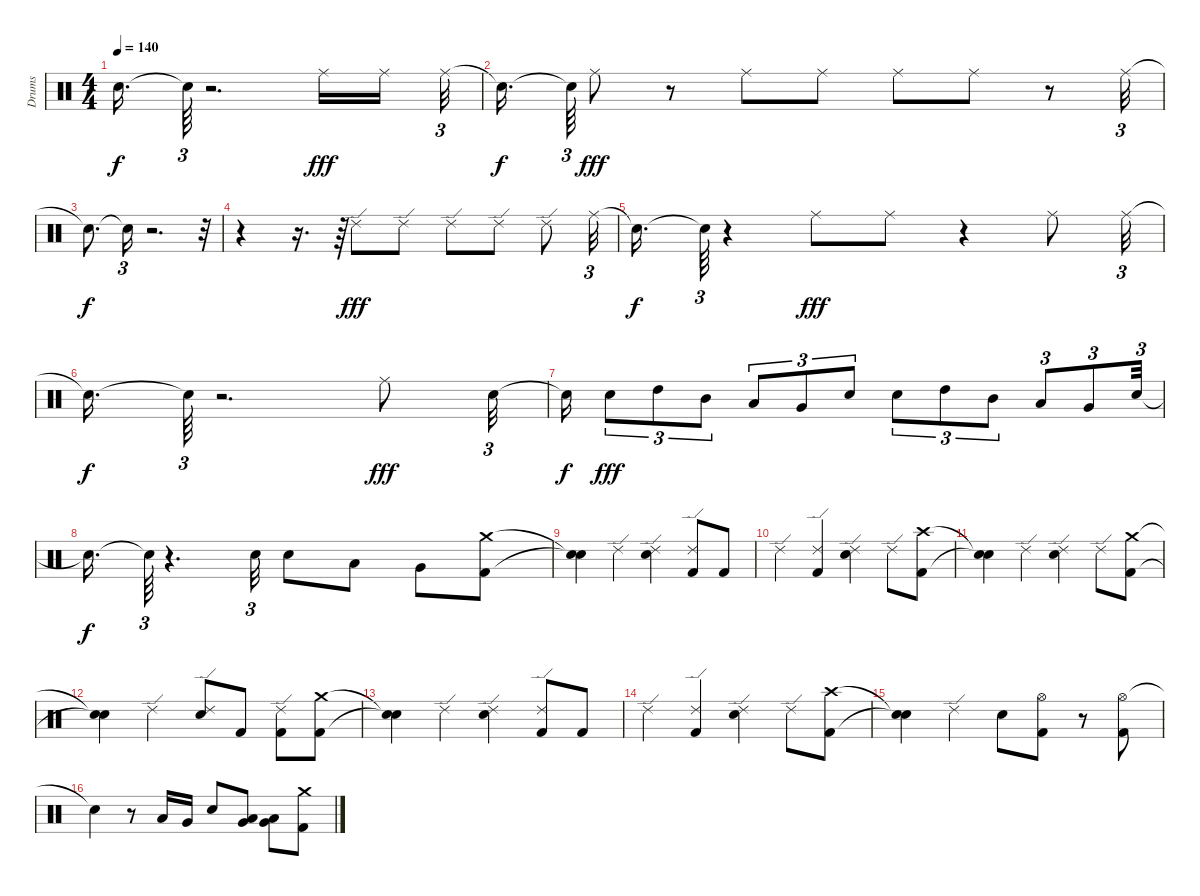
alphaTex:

\track ("Drums" "Drums") {instrument percussion}
\staff {score}
\articulation defaults
\ts (4 4)
\tempo 140
\clef neutral
\ks c "Snare (hit)"{t}.16{d dy f} "Snare (hit)"{t}.64{tu (3 2)}
r.2{d} "Ride (middle)".16{dy fff} "Ride (middle)".16 "Ride (middle)".32{tu (3 2)} |
"Snare (hit)"{t}.16{d dy f} "Snare (hit)"{t}.64{tu (3 2)} "Ride (middle)".8{dy fff} r.8 "Ride (middle)".8 "Ride (middle)".8 "Ride (middle)".8 "Ride (middle)".8 r.8 "Ride (middle)".32{tu (3 2)} |
"Snare (hit)"{t}.8{d dy f} "Snare (hit)"{t}.16{tu (3 2)} r.2{d} r.32{tu (3 2)} |
r.4 r.16{d} r.64{tu (3 2)} "Ride (edge) 2".8{dy fff} "Ride (edge) 2".8 "Ride (edge) 2".8 "Ride (edge) 2".8 "Ride (edge) 2".8 "Ride (middle)".32{tu (3 2)} |
"Snare (hit)"{t}.16{d dy f} "Snare (hit)"{t}.64{tu (3 2)} r.4 "Ride (middle)".8{dy fff} "Ride (middle)".8 r.4 "Ride (middle)".8 "Ride (middle)".32{tu (3 2)} |
"Snare (hit)"{t}.16{d dy f} "Snare (hit)"{t}.64{tu (3 2)} r.2{d} "Ride (middle)".8{dy fff} "Snare (hit) 2".32{tu (3 2)} |
"Snare (hit)"{t}.16{dy f} "Snare (hit) 2".8{tu (3 2) dy fff} "High Tom (hit)".8{tu (3 2)} "Mid Tom (hit)".8{tu (3 2)} "Low Tom (hit)".8{tu (3 2)} "Very Low Tom (hit)".8{tu (3 2)} "Snare (hit) 2".8{tu (3 2)} "Snare (hit) 2".8{tu (3 2)} "High Tom (hit)".8{tu (3 2)} "Mid Tom (hit)".8{tu (3 2)} "Low Tom (hit)".8{tu (3 2)} "Very Low Tom (hit)".8{tu (3 2)} "Snare (hit) 2".32{tu (3 2)} |
"Snare (hit)"{t}.16{d dy f} "Snare (hit)"{t}.64{tu (3 2)} r.4{d} "Snare (hit) 2".32{tu (3 2)} "Snare (hit) 2".8 "Low Tom (hit)".8 "Very Low Tom (hit)".8 ("Crash medium (hit)" "Kick (hit) 2").8 |
("Snare (hit)"{t} "Snare (hit)"{t}).4 "Ride (edge) 2".4 ("Snare (hit) 2" "Ride (edge) 2").4 ("Kick (hit) 2" "Ride (edge) 2").8 "Kick (hit) 2".8 |
"Ride (edge) 2".4 ("Kick (hit) 2" "Ride (edge) 2").4 ("Snare (hit) 2" "Ride (edge) 2").4 "Ride (edge) 2".8 ("Crash high (hit)" "Kick (hit) 2").8 |
("Snare (hit)"{t} "Snare (hit)"{t}).4 "Ride (edge) 2".4 ("Snare (hit) 2" "Ride (edge) 2").4 "Ride (edge) 2".8 ("Crash medium (hit)" "Kick (hit) 2").8 |
("Snare (hit)"{t} "Snare (hit)"{t}).4 "Ride (edge) 2".4 ("Snare (hit) 2" "Ride (edge) 2").8 "Kick (hit) 2".8 ("Ride (edge) 2" "Kick (hit) 2").8 ("Crash medium (hit)" "Kick (hit) 2").8 |
("Snare (hit)"{t} "Snare (hit)"{t}).4 "Ride (edge) 2".4 ("Snare (hit) 2" "Ride (edge) 2").4 ("Kick (hit) 2" "Ride (edge) 2").8 "Kick (hit) 2".8 |
"Ride (edge) 2".4 ("Kick (hit) 2" "Ride (edge) 2").4 ("Snare (hit) 2" "Ride (edge) 2").4 "Ride (edge) 2".8 ("Crash high (hit)" "Kick (hit) 2").8 |
("Snare (hit)"{t} "Snare (hit)"{t}).4 "Ride (edge) 2".4 "Snare (hit) 2".8 ("Hi-Hat (open)" "Kick (hit) 2").8 r.8 ("Hi-Hat (open)" "Kick (hit) 2").8 |
"Snare (hit)"{t}.4 r.8 "Low Tom (hit)".16 "Very Low Tom (hit)".16 "Snare (hit) 2".8 ("Very Low Tom (hit)" "Low Tom (hit)").8 ("Very Low Tom (hit)" "Low Floor Tom (hit)").8 ("Crash medium (hit)" "Kick (hit) 2").8
